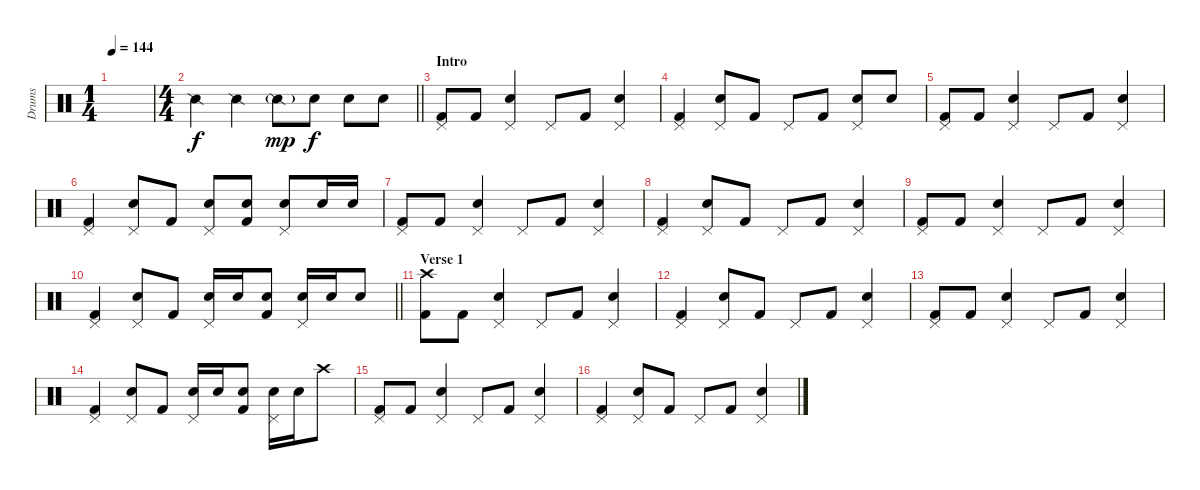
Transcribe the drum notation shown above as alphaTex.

\track ("Drums" "Drums") {instrument percussion}
\staff {score}
\articulation defaults
\ts (1 4)
\tempo 144
\clef neutral
\ks c
|
\ts (4 4)
\barLineRight lightlight "Snare (side stick) 2".4 "Snare (side stick) 2".4 "Snare (side stick) 2"{g}.8{dy mp} "Electric Snare (hit)".8{dy f} "Electric Snare (hit)".8 "Electric Snare (hit)".8
|
\section ("" "Intro")
("Pedal Hi-Hat (hit)" "Kick (hit) 2").8 "Kick (hit) 2".8 ("Pedal Hi-Hat (hit)" "Electric Snare (hit)").4 "Pedal Hi-Hat (hit)".8 "Kick (hit) 2".8 ("Pedal Hi-Hat (hit)" "Electric Snare (hit)").4 |
("Kick (hit) 2" "Pedal Hi-Hat (hit)").4 ("Electric Snare (hit)" "Pedal Hi-Hat (hit)").8 "Kick (hit) 2".8 "Pedal Hi-Hat (hit)".8 "Kick (hit) 2".8 ("Electric Snare (hit)" "Pedal Hi-Hat (hit)").8 "Electric Snare (hit)".8 |
("Pedal Hi-Hat (hit)" "Kick (hit) 2").8 "Kick (hit) 2".8 ("Pedal Hi-Hat (hit)" "Electric Snare (hit)").4 "Pedal Hi-Hat (hit)".8 "Kick (hit) 2".8 ("Pedal Hi-Hat (hit)" "Electric Snare (hit)").4 |
("Kick (hit) 2" "Pedal Hi-Hat (hit)").4 ("Electric Snare (hit)" "Pedal Hi-Hat (hit)").8 "Kick (hit) 2".8 ("Electric Snare (hit)" "Pedal Hi-Hat (hit)").8 ("Electric Snare (hit)" "Kick (hit) 2").8 ("Electric Snare (hit)" "Pedal Hi-Hat (hit)").8 "Electric Snare (hit)".16 "Electric Snare (hit)".16 |
("Pedal Hi-Hat (hit)" "Kick (hit) 2").8 "Kick (hit) 2".8 ("Pedal Hi-Hat (hit)" "Electric Snare (hit)").4 "Pedal Hi-Hat (hit)".8 "Kick (hit) 2".8 ("Pedal Hi-Hat (hit)" "Electric Snare (hit)").4 |
("Kick (hit) 2" "Pedal Hi-Hat (hit)").4 ("Electric Snare (hit)" "Pedal Hi-Hat (hit)").8 "Kick (hit) 2".8 "Pedal Hi-Hat (hit)".8 "Kick (hit) 2".8 ("Electric Snare (hit)" "Pedal Hi-Hat (hit)").4 |
("Pedal Hi-Hat (hit)" "Kick (hit) 2").8 "Kick (hit) 2".8 ("Pedal Hi-Hat (hit)" "Electric Snare (hit)").4 "Pedal Hi-Hat (hit)".8 "Kick (hit) 2".8 ("Pedal Hi-Hat (hit)" "Electric Snare (hit)").4 |
\barLineRight lightlight
("Kick (hit) 2" "Pedal Hi-Hat (hit)").4 ("Electric Snare (hit)" "Pedal Hi-Hat (hit)").8 "Kick (hit) 2".8 ("Electric Snare (hit)" "Pedal Hi-Hat (hit)").16 "Electric Snare (hit)".16 ("Electric Snare (hit)" "Kick (hit) 2").8 ("Electric Snare (hit)" "Pedal Hi-Hat (hit)").16 "Electric Snare (hit)".16 "Electric Snare (hit)".8 |
\section ("" "Verse 1")
("Crash high (hit)" "Kick (hit) 2").8 "Kick (hit) 2".8 ("Pedal Hi-Hat (hit)" "Electric Snare (hit)").4 "Pedal Hi-Hat (hit)".8 "Kick (hit) 2".8 ("Pedal Hi-Hat (hit)" "Electric Snare (hit)").4 |
("Kick (hit) 2" "Pedal Hi-Hat (hit)").4 ("Electric Snare (hit)" "Pedal Hi-Hat (hit)").8 "Kick (hit) 2".8 "Pedal Hi-Hat (hit)".8 "Kick (hit) 2".8 ("Electric Snare (hit)" "Pedal Hi-Hat (hit)").4 |
("Pedal Hi-Hat (hit)" "Kick (hit) 2").8 "Kick (hit) 2".8 ("Pedal Hi-Hat (hit)" "Electric Snare (hit)").4 "Pedal Hi-Hat (hit)".8 "Kick (hit) 2".8 ("Pedal Hi-Hat (hit)" "Electric Snare (hit)").4 |
("Kick (hit) 2" "Pedal Hi-Hat (hit)").4 ("Electric Snare (hit)" "Pedal Hi-Hat (hit)").8 "Kick (hit) 2".8 ("Electric Snare (hit)" "Pedal Hi-Hat (hit)").16 "Electric Snare (hit)".16 ("Electric Snare (hit)" "Kick (hit) 2").8 ("Electric Snare (hit)" "Pedal Hi-Hat (hit)").16 "Electric Snare (hit)".16 "Crash high (hit)".8 |
("Pedal Hi-Hat (hit)" "Kick (hit) 2").8 "Kick (hit) 2".8 ("Pedal Hi-Hat (hit)" "Electric Snare (hit)").4 "Pedal Hi-Hat (hit)".8 "Kick (hit) 2".8 ("Pedal Hi-Hat (hit)" "Electric Snare (hit)").4 |
("Kick (hit) 2" "Pedal Hi-Hat (hit)").4 ("Electric Snare (hit)" "Pedal Hi-Hat (hit)").8 "Kick (hit) 2".8 "Pedal Hi-Hat (hit)".8 "Kick (hit) 2".8 ("Electric Snare (hit)" "Pedal Hi-Hat (hit)").4
